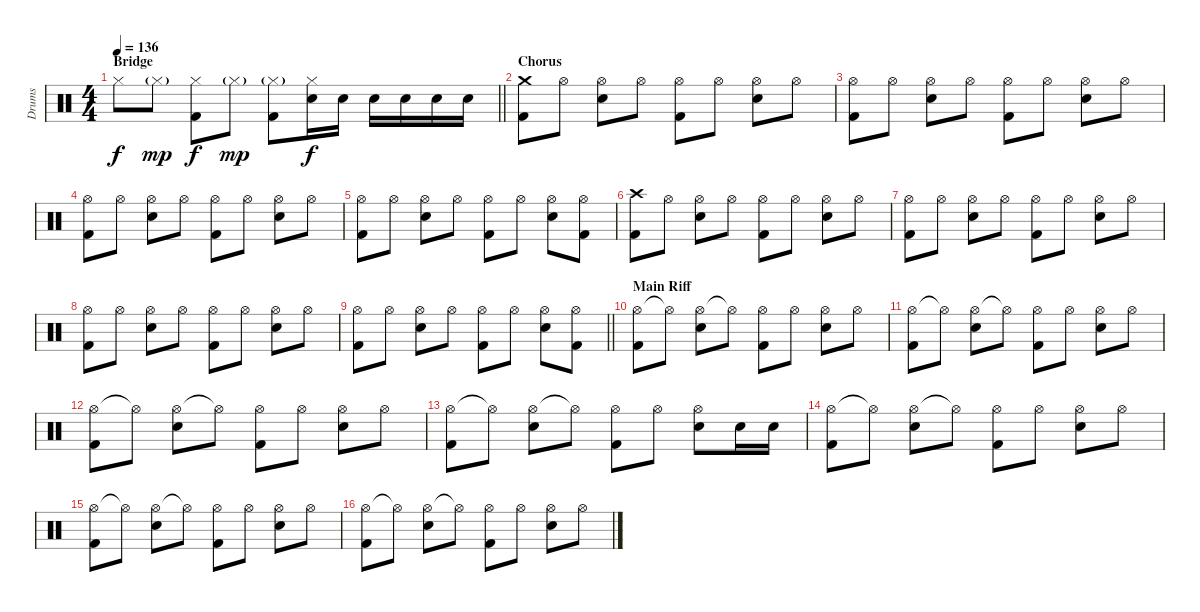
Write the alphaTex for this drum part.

\track ("Drums" "Drums") {instrument percussion}
\staff {score}
\articulation defaults
\ts (4 4)
\section ("" "Bridge")
\tempo 136
\clef neutral
\barLineRight lightlight
\ks c "Hi-Hat (closed)".8{dy f} "Hi-Hat (closed)"{g}.8{dy mp}
("Hi-Hat (closed)" "Kick (hit) 2").8{dy f} "Hi-Hat (closed)"{g}.8{dy mp} ("Hi-Hat (closed)"{g} "Kick (hit) 2").8 ("Hi-Hat (closed)" "Electric Snare (hit)").16{dy f} "Electric Snare (hit)".16 "Electric Snare (hit)".16 "Electric Snare (hit)".16 "Electric Snare (hit)".16 "Electric Snare (hit)".16 |
\section ("" "Chorus")
("Crash medium (hit)" "Kick (hit) 2").8 "Hi-Hat (open)".8 ("Hi-Hat (open)" "Electric Snare (hit)").8 "Hi-Hat (open)".8 ("Hi-Hat (open)" "Kick (hit) 2").8 "Hi-Hat (open)".8 ("Hi-Hat (open)" "Electric Snare (hit)").8 "Hi-Hat (open)".8 |
("Hi-Hat (open)" "Kick (hit) 2").8 "Hi-Hat (open)".8 ("Hi-Hat (open)" "Electric Snare (hit)").8 "Hi-Hat (open)".8 ("Hi-Hat (open)" "Kick (hit) 2").8 "Hi-Hat (open)".8 ("Hi-Hat (open)" "Electric Snare (hit)").8 "Hi-Hat (open)".8 |
("Hi-Hat (open)" "Kick (hit) 2").8 "Hi-Hat (open)".8 ("Hi-Hat (open)" "Electric Snare (hit)").8 "Hi-Hat (open)".8 ("Hi-Hat (open)" "Kick (hit) 2").8 "Hi-Hat (open)".8 ("Hi-Hat (open)" "Electric Snare (hit)").8 "Hi-Hat (open)".8 |
("Hi-Hat (open)" "Kick (hit) 2").8 "Hi-Hat (open)".8 ("Hi-Hat (open)" "Electric Snare (hit)").8 "Hi-Hat (open)".8 ("Hi-Hat (open)" "Kick (hit) 2").8 "Hi-Hat (open)".8 ("Hi-Hat (open)" "Electric Snare (hit)").8 ("Hi-Hat (open)" "Kick (hit) 2").8 |
("Crash high (hit)" "Kick (hit) 2").8 "Hi-Hat (open)".8 ("Hi-Hat (open)" "Electric Snare (hit)").8 "Hi-Hat (open)".8 ("Hi-Hat (open)" "Kick (hit) 2").8 "Hi-Hat (open)".8 ("Hi-Hat (open)" "Electric Snare (hit)").8 "Hi-Hat (open)".8 |
("Hi-Hat (open)" "Kick (hit) 2").8 "Hi-Hat (open)".8 ("Hi-Hat (open)" "Electric Snare (hit)").8 "Hi-Hat (open)".8 ("Hi-Hat (open)" "Kick (hit) 2").8 "Hi-Hat (open)".8 ("Hi-Hat (open)" "Electric Snare (hit)").8 "Hi-Hat (open)".8 |
("Hi-Hat (open)" "Kick (hit) 2").8 "Hi-Hat (open)".8 ("Hi-Hat (open)" "Electric Snare (hit)").8 "Hi-Hat (open)".8 ("Hi-Hat (open)" "Kick (hit) 2").8 "Hi-Hat (open)".8 ("Hi-Hat (open)" "Electric Snare (hit)").8 "Hi-Hat (open)".8 |
\barLineRight lightlight
("Hi-Hat (open)" "Kick (hit) 2").8 "Hi-Hat (open)".8 ("Hi-Hat (open)" "Electric Snare (hit)").8 "Hi-Hat (open)".8 ("Hi-Hat (open)" "Kick (hit) 2").8 "Hi-Hat (open)".8 ("Hi-Hat (open)" "Electric Snare (hit)").8 ("Hi-Hat (open)" "Kick (hit) 2").8 |
\section ("" "Main Riff")
("Hi-Hat (open)" "Kick (hit) 2").8 "Hi-Hat (open)"{t}.8 ("Hi-Hat (open)" "Electric Snare (hit)").8 "Hi-Hat (open)"{t}.8 ("Hi-Hat (open)" "Kick (hit) 2").8 "Hi-Hat (open)".8 ("Hi-Hat (open)" "Electric Snare (hit)").8 "Hi-Hat (open)".8 |
("Hi-Hat (open)" "Kick (hit) 2").8 "Hi-Hat (open)"{t}.8 ("Hi-Hat (open)" "Electric Snare (hit)").8 "Hi-Hat (open)"{t}.8 ("Hi-Hat (open)" "Kick (hit) 2").8 "Hi-Hat (open)".8 ("Hi-Hat (open)" "Electric Snare (hit)").8 "Hi-Hat (open)".8 |
("Hi-Hat (open)" "Kick (hit) 2").8 "Hi-Hat (open)"{t}.8 ("Hi-Hat (open)" "Electric Snare (hit)").8 "Hi-Hat (open)"{t}.8 ("Hi-Hat (open)" "Kick (hit) 2").8 "Hi-Hat (open)".8 ("Hi-Hat (open)" "Electric Snare (hit)").8 "Hi-Hat (open)".8 |
("Hi-Hat (open)" "Kick (hit) 2").8 "Hi-Hat (open)"{t}.8 ("Hi-Hat (open)" "Electric Snare (hit)").8 "Hi-Hat (open)"{t}.8 ("Hi-Hat (open)" "Kick (hit) 2").8 "Hi-Hat (open)".8 ("Hi-Hat (open)" "Electric Snare (hit)").8 "Electric Snare (hit)".16 "Electric Snare (hit)".16 |
("Hi-Hat (open)" "Kick (hit) 2").8 "Hi-Hat (open)"{t}.8 ("Hi-Hat (open)" "Electric Snare (hit)").8 "Hi-Hat (open)"{t}.8 ("Hi-Hat (open)" "Kick (hit) 2").8 "Hi-Hat (open)".8 ("Hi-Hat (open)" "Electric Snare (hit)").8 "Hi-Hat (open)".8 |
("Hi-Hat (open)" "Kick (hit) 2").8 "Hi-Hat (open)"{t}.8 ("Hi-Hat (open)" "Electric Snare (hit)").8 "Hi-Hat (open)"{t}.8 ("Hi-Hat (open)" "Kick (hit) 2").8 "Hi-Hat (open)".8 ("Hi-Hat (open)" "Electric Snare (hit)").8 "Hi-Hat (open)".8 |
("Hi-Hat (open)" "Kick (hit) 2").8 "Hi-Hat (open)"{t}.8 ("Hi-Hat (open)" "Electric Snare (hit)").8 "Hi-Hat (open)"{t}.8 ("Hi-Hat (open)" "Kick (hit) 2").8 "Hi-Hat (open)".8 ("Hi-Hat (open)" "Electric Snare (hit)").8 "Hi-Hat (open)".8
